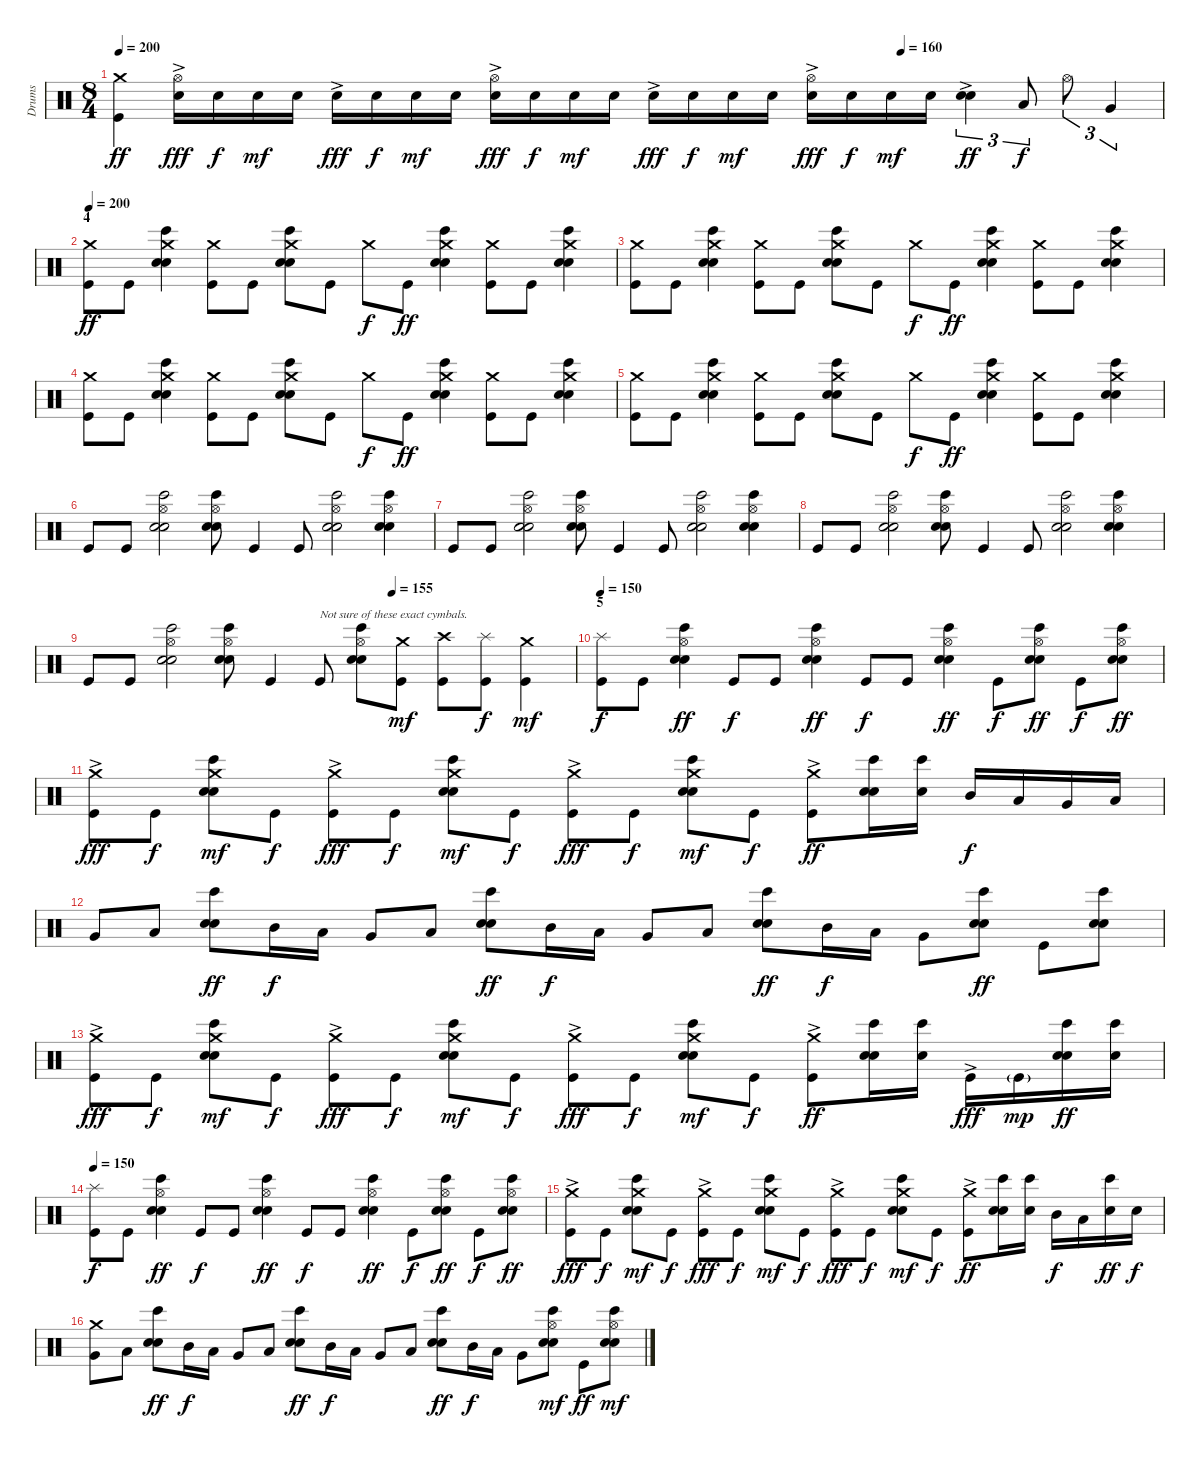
\track ("Drums" "Drums") {instrument percussion}
\staff {score}
\articulation defaults
\ts (8 4)
\tempo 200
\tempo (160 0.75)
\clef neutral
\ks c
("Kick (hit)" "Crash medium (hit)").4{dy ff} ("Electric Snare (hit)"{ac} "Hi-Hat (open)").16{dy fff} "Electric Snare (hit)".16{dy f} "Electric Snare (hit)".16{dy mf} "Electric Snare (hit)".16 "Electric Snare (hit)"{ac}.16{dy fff} "Electric Snare (hit)".16{dy f} "Electric Snare (hit)".16{dy mf} "Electric Snare (hit)".16 ("Electric Snare (hit)"{ac} "Hi-Hat (open)").16{dy fff} "Electric Snare (hit)".16{dy f} "Electric Snare (hit)".16{dy mf} "Electric Snare (hit)".16 "Electric Snare (hit)"{ac}.16{dy fff} "Electric Snare (hit)".16{dy f} "Electric Snare (hit)".16{dy mf} "Electric Snare (hit)".16 ("Electric Snare (hit)"{ac} "Hi-Hat (open)").16{dy fff} "Electric Snare (hit)".16{dy f} "Electric Snare (hit)".16{dy mf} "Electric Snare (hit)".16 ("Electric Snare (hit)"{ac} "Electric Snare (hit)").4{tu (3 2) dy ff} "Low Tom (hit)".8{tu (3 2) dy f} "Hi-Hat (open)".8{tu (3 2)} "Very Low Tom (hit)".4{tu (3 2)} |
\section ("" "4")
\tempo 200
("Kick (hit)" "Crash medium (hit)").8{dy ff} "Kick (hit)".8 ("Electric Snare (hit)" "Electric Snare (hit)" "Bongo High (hit)" "Crash medium (hit)").4 ("Kick (hit)" "Crash medium (hit)").8 "Kick (hit)".8 ("Electric Snare (hit)" "Electric Snare (hit)" "Bongo High (hit)" "Crash medium (hit)").8 "Kick (hit)".8 "Crash medium (hit)".8{dy f} "Kick (hit)".8{dy ff} ("Electric Snare (hit)" "Electric Snare (hit)" "Bongo High (hit)" "Crash medium (hit)").4 ("Kick (hit)" "Crash medium (hit)").8 "Kick (hit)".8 ("Electric Snare (hit)" "Electric Snare (hit)" "Bongo High (hit)" "Crash medium (hit)").4 |
("Kick (hit)" "Crash medium (hit)").8 "Kick (hit)".8 ("Electric Snare (hit)" "Electric Snare (hit)" "Bongo High (hit)" "Crash medium (hit)").4 ("Kick (hit)" "Crash medium (hit)").8 "Kick (hit)".8 ("Electric Snare (hit)" "Electric Snare (hit)" "Bongo High (hit)" "Crash medium (hit)").8 "Kick (hit)".8 "Crash medium (hit)".8{dy f} "Kick (hit)".8{dy ff} ("Electric Snare (hit)" "Electric Snare (hit)" "Bongo High (hit)" "Crash medium (hit)").4 ("Kick (hit)" "Crash medium (hit)").8 "Kick (hit)".8 ("Electric Snare (hit)" "Electric Snare (hit)" "Bongo High (hit)" "Crash medium (hit)").4 |
("Kick (hit)" "Crash medium (hit)").8 "Kick (hit)".8 ("Electric Snare (hit)" "Electric Snare (hit)" "Bongo High (hit)" "Crash medium (hit)").4 ("Kick (hit)" "Crash medium (hit)").8 "Kick (hit)".8 ("Electric Snare (hit)" "Electric Snare (hit)" "Bongo High (hit)" "Crash medium (hit)").8 "Kick (hit)".8 "Crash medium (hit)".8{dy f} "Kick (hit)".8{dy ff} ("Electric Snare (hit)" "Electric Snare (hit)" "Bongo High (hit)" "Crash medium (hit)").4 ("Kick (hit)" "Crash medium (hit)").8 "Kick (hit)".8 ("Electric Snare (hit)" "Electric Snare (hit)" "Bongo High (hit)" "Crash medium (hit)").4 |
("Kick (hit)" "Crash medium (hit)").8 "Kick (hit)".8 ("Electric Snare (hit)" "Electric Snare (hit)" "Bongo High (hit)" "Crash medium (hit)").4 ("Kick (hit)" "Crash medium (hit)").8 "Kick (hit)".8 ("Electric Snare (hit)" "Electric Snare (hit)" "Bongo High (hit)" "Crash medium (hit)").8 "Kick (hit)".8 "Crash medium (hit)".8{dy f} "Kick (hit)".8{dy ff} ("Electric Snare (hit)" "Electric Snare (hit)" "Bongo High (hit)" "Crash medium (hit)").4 ("Kick (hit)" "Crash medium (hit)").8 "Kick (hit)".8 ("Electric Snare (hit)" "Electric Snare (hit)" "Bongo High (hit)" "Crash medium (hit)").4 |
"Kick (hit)".8 "Kick (hit)".8 ("Electric Snare (hit)" "Electric Snare (hit)" "Hi-Hat (open)" "Bongo High (hit)").2 ("Electric Snare (hit)" "Electric Snare (hit)" "Hi-Hat (open)" "Bongo High (hit)").8 "Kick (hit)".4 "Kick (hit)".8 ("Electric Snare (hit)" "Electric Snare (hit)" "Hi-Hat (open)" "Bongo High (hit)").2 ("Electric Snare (hit)" "Electric Snare (hit)" "Hi-Hat (open)" "Bongo High (hit)").4 |
"Kick (hit)".8 "Kick (hit)".8 ("Electric Snare (hit)" "Electric Snare (hit)" "Hi-Hat (open)" "Bongo High (hit)").2 ("Electric Snare (hit)" "Electric Snare (hit)" "Hi-Hat (open)" "Bongo High (hit)").8 "Kick (hit)".4 "Kick (hit)".8 ("Electric Snare (hit)" "Electric Snare (hit)" "Hi-Hat (open)" "Bongo High (hit)").2 ("Electric Snare (hit)" "Electric Snare (hit)" "Hi-Hat (open)" "Bongo High (hit)").4 |
"Kick (hit)".8 "Kick (hit)".8 ("Electric Snare (hit)" "Electric Snare (hit)" "Hi-Hat (open)" "Bongo High (hit)").2 ("Electric Snare (hit)" "Electric Snare (hit)" "Hi-Hat (open)" "Bongo High (hit)").8 "Kick (hit)".4 "Kick (hit)".8 ("Electric Snare (hit)" "Electric Snare (hit)" "Hi-Hat (open)" "Bongo High (hit)").2 ("Electric Snare (hit)" "Electric Snare (hit)" "Hi-Hat (open)" "Bongo High (hit)").4 |
\tempo (155 0.625)
"Kick (hit)".8 "Kick (hit)".8 ("Electric Snare (hit)" "Electric Snare (hit)" "Hi-Hat (open)" "Bongo High (hit)").2 ("Electric Snare (hit)" "Electric Snare (hit)" "Hi-Hat (open)" "Bongo High (hit)").8 "Kick (hit)".4 "Kick (hit)".8{txt "Not sure of these exact cymbals."} ("Electric Snare (hit)" "Electric Snare (hit)" "Hi-Hat (open)" "Bongo High (hit)").8 ("Kick (hit)" "Crash medium (hit)").8{dy mf} ("Kick (hit)" "Crash high (hit)").8 ("Kick (hit)" "Splash (hit)").8{dy f} ("Kick (hit)" "Crash medium (hit)").4{dy mf} |
\section ("" "5")
\tempo 150
("Kick (hit)" "Splash (hit)").8{dy f} "Kick (hit)".8 ("Electric Snare (hit)" "Electric Snare (hit)" "Hi-Hat (open)" "Bongo High (hit)").4{dy ff} "Kick (hit)".8{dy f} "Kick (hit)".8 ("Electric Snare (hit)" "Electric Snare (hit)" "Hi-Hat (open)" "Bongo High (hit)").4{dy ff} "Kick (hit)".8{dy f} "Kick (hit)".8 ("Electric Snare (hit)" "Electric Snare (hit)" "Hi-Hat (open)" "Bongo High (hit)").4{dy ff} "Kick (hit)".8{dy f} ("Electric Snare (hit)" "Electric Snare (hit)" "Hi-Hat (open)" "Bongo High (hit)").8{dy ff} "Kick (hit)".8{dy f} ("Electric Snare (hit)" "Electric Snare (hit)" "Hi-Hat (open)" "Bongo High (hit)").8{dy ff} |
("Kick (hit)"{ac} "Crash medium (hit)").8{dy fff} "Kick (hit)".8{dy f} ("Electric Snare (hit)" "Electric Snare (hit)" "Bongo High (hit)" "Crash medium (hit)").8{dy mf} "Kick (hit)".8{dy f} ("Kick (hit)"{ac} "Crash medium (hit)").8{dy fff} "Kick (hit)".8{dy f} ("Electric Snare (hit)" "Electric Snare (hit)" "Bongo High (hit)" "Crash medium (hit)").8{dy mf} "Kick (hit)".8{dy f} ("Kick (hit)"{ac} "Crash medium (hit)").8{dy fff} "Kick (hit)".8{dy f} ("Electric Snare (hit)" "Electric Snare (hit)" "Bongo High (hit)" "Crash medium (hit)").8{dy mf} "Kick (hit)".8{dy f} ("Kick (hit)"{ac} "Crash medium (hit)").8{dy ff} ("Electric Snare (hit)" "Electric Snare (hit)" "Bongo High (hit)").16 ("Electric Snare (hit)" "Bongo High (hit)").16 "Mid Tom (hit)".16{dy f} "Low Tom (hit)".16 "Very Low Tom (hit)".16 "Low Floor Tom (hit)".16 |
"Very Low Tom (hit)".8 "Low Floor Tom (hit)".8 ("Electric Snare (hit)" "Electric Snare (hit)" "Bongo High (hit)").8{dy ff} "Mid Tom (hit)".16{dy f} "Low Tom (hit)".16 "Very Low Tom (hit)".8 "Low Floor Tom (hit)".8 ("Electric Snare (hit)" "Electric Snare (hit)" "Bongo High (hit)").8{dy ff} "Mid Tom (hit)".16{dy f} "Low Tom (hit)".16 "Very Low Tom (hit)".8 "Low Floor Tom (hit)".8 ("Electric Snare (hit)" "Electric Snare (hit)" "Bongo High (hit)").8{dy ff} "Mid Tom (hit)".16{dy f} "Low Tom (hit)".16 "Very Low Tom (hit)".8 ("Electric Snare (hit)" "Electric Snare (hit)" "Bongo High (hit)").8{dy ff} "Kick (hit)".8 ("Electric Snare (hit)" "Electric Snare (hit)" "Bongo High (hit)").8 |
("Kick (hit)"{ac} "Crash medium (hit)").8{dy fff} "Kick (hit)".8{dy f} ("Electric Snare (hit)" "Electric Snare (hit)" "Bongo High (hit)" "Crash medium (hit)").8{dy mf} "Kick (hit)".8{dy f} ("Kick (hit)"{ac} "Crash medium (hit)").8{dy fff} "Kick (hit)".8{dy f} ("Electric Snare (hit)" "Electric Snare (hit)" "Bongo High (hit)" "Crash medium (hit)").8{dy mf} "Kick (hit)".8{dy f} ("Kick (hit)"{ac} "Crash medium (hit)").8{dy fff} "Kick (hit)".8{dy f} ("Electric Snare (hit)" "Electric Snare (hit)" "Bongo High (hit)" "Crash medium (hit)").8{dy mf} "Kick (hit)".8{dy f} ("Kick (hit)"{ac} "Crash medium (hit)").8{dy ff} ("Electric Snare (hit)" "Electric Snare (hit)" "Bongo High (hit)").16 ("Electric Snare (hit)" "Bongo High (hit)").16 "Kick (hit)"{ac}.16{dy fff} "Kick (hit)"{g}.16{dy mp} ("Electric Snare (hit)" "Electric Snare (hit)" "Bongo High (hit)").16{dy ff} ("Electric Snare (hit)" "Bongo High (hit)").16 |
\tempo 150
("Kick (hit)" "Splash (hit)").8{dy f} "Kick (hit)".8 ("Electric Snare (hit)" "Electric Snare (hit)" "Hi-Hat (open)" "Bongo High (hit)").4{dy ff} "Kick (hit)".8{dy f} "Kick (hit)".8 ("Electric Snare (hit)" "Electric Snare (hit)" "Hi-Hat (open)" "Bongo High (hit)").4{dy ff} "Kick (hit)".8{dy f} "Kick (hit)".8 ("Electric Snare (hit)" "Electric Snare (hit)" "Hi-Hat (open)" "Bongo High (hit)").4{dy ff} "Kick (hit)".8{dy f} ("Electric Snare (hit)" "Electric Snare (hit)" "Hi-Hat (open)" "Bongo High (hit)").8{dy ff} "Kick (hit)".8{dy f} ("Electric Snare (hit)" "Electric Snare (hit)" "Hi-Hat (open)" "Bongo High (hit)").8{dy ff} |
("Kick (hit)"{ac} "Crash medium (hit)").8{dy fff} "Kick (hit)".8{dy f} ("Electric Snare (hit)" "Electric Snare (hit)" "Bongo High (hit)" "Crash medium (hit)").8{dy mf} "Kick (hit)".8{dy f} ("Kick (hit)"{ac} "Crash medium (hit)").8{dy fff} "Kick (hit)".8{dy f} ("Electric Snare (hit)" "Electric Snare (hit)" "Bongo High (hit)" "Crash medium (hit)").8{dy mf} "Kick (hit)".8{dy f} ("Kick (hit)"{ac} "Crash medium (hit)").8{dy fff} "Kick (hit)".8{dy f} ("Electric Snare (hit)" "Electric Snare (hit)" "Bongo High (hit)" "Crash medium (hit)").8{dy mf} "Kick (hit)".8{dy f} ("Kick (hit)"{ac} "Crash medium (hit)").8{dy ff} ("Electric Snare (hit)" "Electric Snare (hit)" "Bongo High (hit)").16 ("Electric Snare (hit)" "Bongo High (hit)").16 "Mid Tom (hit)".16{dy f} "Low Tom (hit)".16 ("Electric Snare (hit)" "Bongo High (hit)").16{dy ff} "Electric Snare (hit)".16{dy f} |
("Very Low Tom (hit)" "Crash medium (hit)").8 "Low Floor Tom (hit)".8 ("Electric Snare (hit)" "Electric Snare (hit)" "Bongo High (hit)").8{dy ff} "Mid Tom (hit)".16{dy f} "Low Tom (hit)".16 "Very Low Tom (hit)".8 "Low Floor Tom (hit)".8 ("Electric Snare (hit)" "Electric Snare (hit)" "Bongo High (hit)").8{dy ff} "Mid Tom (hit)".16{dy f} "Low Tom (hit)".16 "Very Low Tom (hit)".8 "Low Floor Tom (hit)".8 ("Electric Snare (hit)" "Electric Snare (hit)" "Bongo High (hit)").8{dy ff} "Mid Tom (hit)".16{dy f} "Low Tom (hit)".16 "Very Low Tom (hit)".8 ("Electric Snare (hit)" "Electric Snare (hit)" "Bongo High (hit)" "Hi-Hat (open)").8{dy mf} "Kick (hit)".8{dy ff} ("Electric Snare (hit)" "Electric Snare (hit)" "Bongo High (hit)" "Hi-Hat (open)").8{dy mf}
